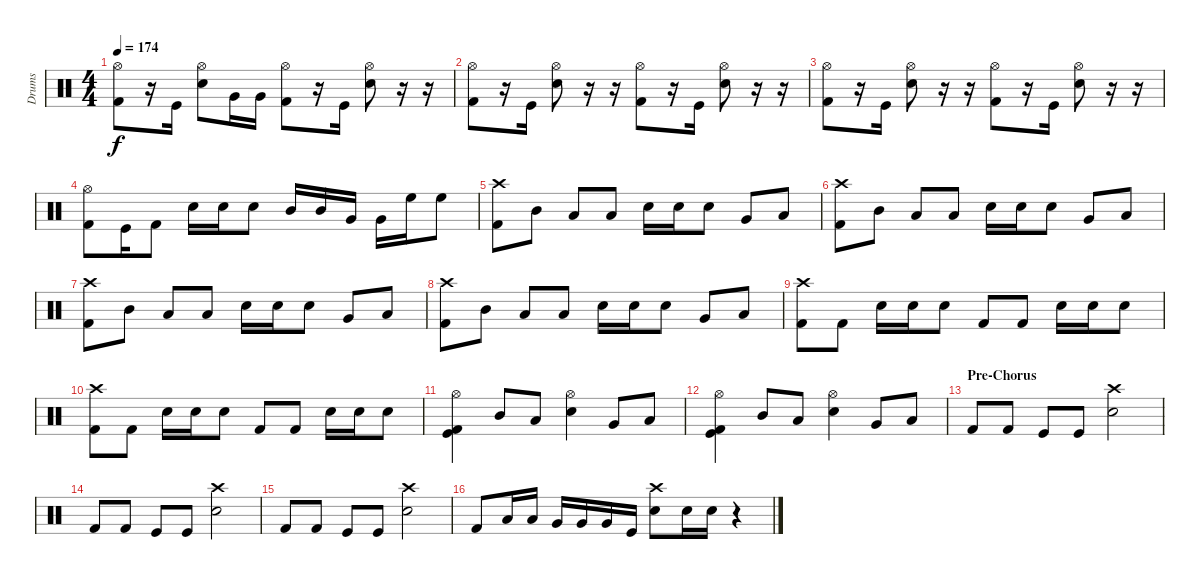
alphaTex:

\track ("Drums" "Drums") {instrument percussion}
\staff {score}
\articulation defaults
\ts (4 4)
\tempo 174
\clef neutral
\ks c
("Hi-Hat (open)" "Kick (hit) 2").8{dy f} r.16 "Kick (hit)".16 ("Hi-Hat (open)" "Snare (hit) 2").8 "Very Low Tom (hit)".16 "Very Low Tom (hit)".16 ("Hi-Hat (open)" "Kick (hit) 2").8 r.16 "Kick (hit)".16 ("Hi-Hat (open)" "Snare (hit) 2").8 r.16 r.16 |
("Hi-Hat (open)" "Kick (hit) 2").8 r.16 "Kick (hit)".16 ("Hi-Hat (open)" "Snare (hit) 2").8 r.16 r.16 ("Hi-Hat (open)" "Kick (hit) 2").8 r.16 "Kick (hit)".16 ("Hi-Hat (open)" "Snare (hit) 2").8 r.16 r.16 |
("Hi-Hat (open)" "Kick (hit) 2").8 r.16 "Kick (hit)".16 ("Hi-Hat (open)" "Snare (hit) 2").8 r.16 r.16 ("Hi-Hat (open)" "Kick (hit) 2").8 r.16 "Kick (hit)".16 ("Hi-Hat (open)" "Snare (hit) 2").8 r.16 r.16 |
("Hi-Hat (open)" "Kick (hit) 2").8 "Kick (hit)".16 "Kick (hit) 2".8 "Snare (hit) 2".16 "Snare (hit) 2".16 "Snare (hit) 2".8 "Mid Tom (hit)".16 "Mid Tom (hit)".16 "Very Low Tom (hit)".16 "Very Low Tom (hit)".16 "High Floor Tom (hit)".16 "High Floor Tom (hit)".8 |
("Crash high (hit)" "Kick (hit) 2").8 "Mid Tom (hit)".8 "Low Tom (hit)".8 "Low Tom (hit)".8 "Snare (hit) 2".16 "Snare (hit) 2".16 "Snare (hit) 2".8 "Very Low Tom (hit)".8 "Low Floor Tom (hit)".8 |
("Crash high (hit)" "Kick (hit) 2").8 "Mid Tom (hit)".8 "Low Tom (hit)".8 "Low Tom (hit)".8 "Snare (hit) 2".16 "Snare (hit) 2".16 "Snare (hit) 2".8 "Very Low Tom (hit)".8 "Low Floor Tom (hit)".8 |
("Crash high (hit)" "Kick (hit) 2").8 "Mid Tom (hit)".8 "Low Tom (hit)".8 "Low Tom (hit)".8 "Snare (hit) 2".16 "Snare (hit) 2".16 "Snare (hit) 2".8 "Very Low Tom (hit)".8 "Low Floor Tom (hit)".8 |
("Crash high (hit)" "Kick (hit) 2").8 "Mid Tom (hit)".8 "Low Tom (hit)".8 "Low Tom (hit)".8 "Snare (hit) 2".16 "Snare (hit) 2".16 "Snare (hit) 2".8 "Very Low Tom (hit)".8 "Low Floor Tom (hit)".8 |
("Crash high (hit)" "Kick (hit) 2").8 "Kick (hit) 2".8 "Snare (hit) 2".16 "Snare (hit) 2".16 "Snare (hit) 2".8 "Kick (hit) 2".8 "Kick (hit) 2".8 "Snare (hit) 2".16 "Snare (hit) 2".16 "Snare (hit) 2".8 |
("Crash high (hit)" "Kick (hit) 2").8 "Kick (hit) 2".8 "Snare (hit) 2".16 "Snare (hit) 2".16 "Snare (hit) 2".8 "Kick (hit) 2".8 "Kick (hit) 2".8 "Snare (hit) 2".16 "Snare (hit) 2".16 "Snare (hit) 2".8 |
("Hi-Hat (open)" "Kick (hit) 2" "Kick (hit)").4 "Mid Tom (hit)".8 "Low Tom (hit)".8 ("Hi-Hat (open)" "Snare (hit) 2").4 "Very Low Tom (hit)".8 "Low Floor Tom (hit)".8 |
("Hi-Hat (open)" "Kick (hit) 2" "Kick (hit)").4 "Mid Tom (hit)".8 "Low Tom (hit)".8 ("Hi-Hat (open)" "Snare (hit) 2").4 "Very Low Tom (hit)".8 "Low Floor Tom (hit)".8 |
\section ("" "Pre-Chorus")
"Kick (hit) 2".8 "Kick (hit) 2".8 "Kick (hit)".8 "Kick (hit)".8 ("Crash high (hit)" "Snare (hit) 2").2 |
"Kick (hit) 2".8 "Kick (hit) 2".8 "Kick (hit)".8 "Kick (hit)".8 ("Crash high (hit)" "Snare (hit) 2").2 |
"Kick (hit) 2".8 "Kick (hit) 2".8 "Kick (hit)".8 "Kick (hit)".8 ("Crash high (hit)" "Snare (hit) 2").2 |
"Kick (hit) 2".8 "Low Tom (hit)".16 "Low Tom (hit)".16 "Very Low Tom (hit)".16 "Very Low Tom (hit)".16 "Very Low Tom (hit)".16 "Kick (hit)".16 ("Crash high (hit)" "Snare (hit) 2").8 "Snare (hit) 2".16 "Snare (hit) 2".16 r.4
